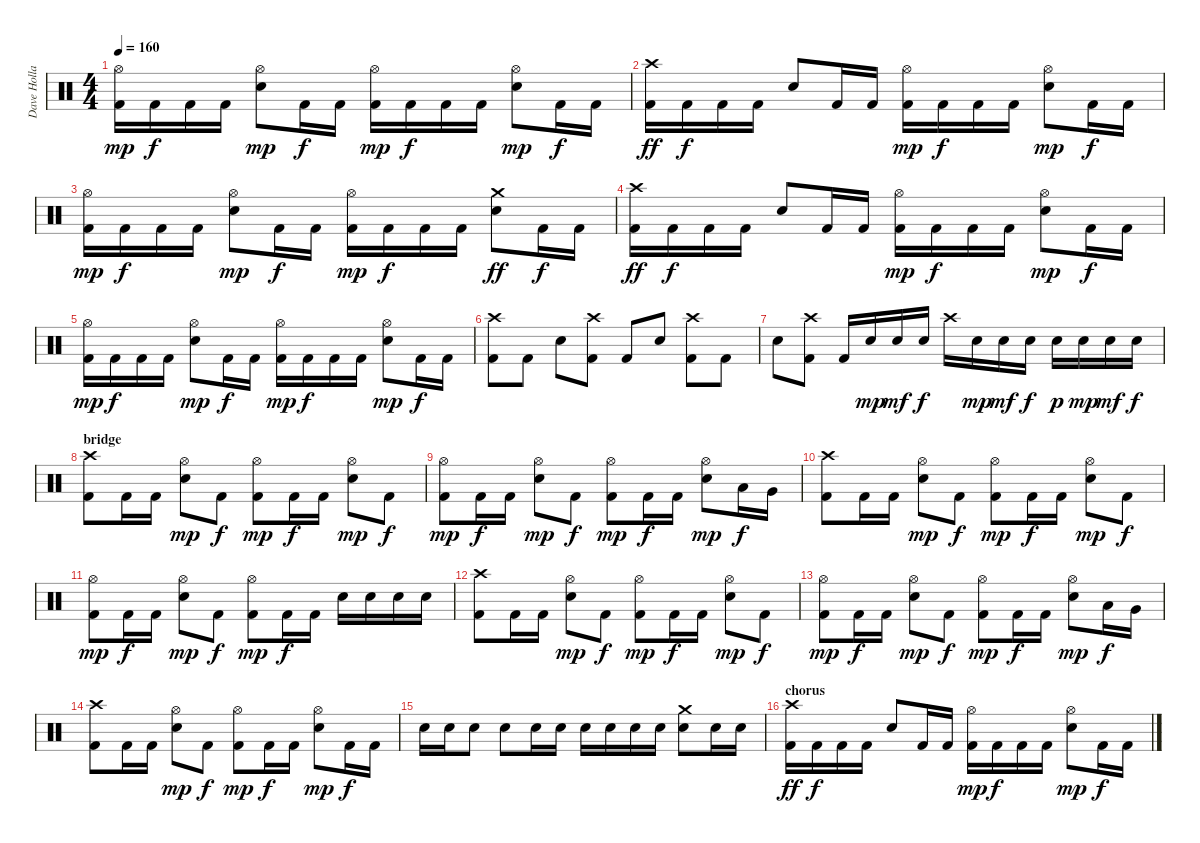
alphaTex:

\track ("Dave Holland" "Dave Holla") {instrument percussion}
\staff {score}
\articulation defaults
\ts (4 4)
\tempo 160
\clef neutral
\ks c
("Kick (hit) 2" "Hi-Hat (open)").16{dy mp} "Kick (hit) 2".16{dy f} "Kick (hit) 2".16 "Kick (hit) 2".16 ("Hi-Hat (open)" "Snare (hit) 2").8{dy mp} "Kick (hit) 2".16{dy f} "Kick (hit) 2".16 ("Kick (hit) 2" "Hi-Hat (open)").16{dy mp} "Kick (hit) 2".16{dy f} "Kick (hit) 2".16 "Kick (hit) 2".16 ("Hi-Hat (open)" "Snare (hit) 2").8{dy mp} "Kick (hit) 2".16{dy f} "Kick (hit) 2".16 |
("Kick (hit) 2" "Crash high (hit)").16{dy ff} "Kick (hit) 2".16{dy f} "Kick (hit) 2".16 "Kick (hit) 2".16 "Snare (hit) 2".8 "Kick (hit) 2".16 "Kick (hit) 2".16 ("Kick (hit) 2" "Hi-Hat (open)").16{dy mp} "Kick (hit) 2".16{dy f} "Kick (hit) 2".16 "Kick (hit) 2".16 ("Hi-Hat (open)" "Snare (hit) 2").8{dy mp} "Kick (hit) 2".16{dy f} "Kick (hit) 2".16 |
("Kick (hit) 2" "Hi-Hat (open)").16{dy mp} "Kick (hit) 2".16{dy f} "Kick (hit) 2".16 "Kick (hit) 2".16 ("Hi-Hat (open)" "Snare (hit) 2").8{dy mp} "Kick (hit) 2".16{dy f} "Kick (hit) 2".16 ("Kick (hit) 2" "Hi-Hat (open)").16{dy mp} "Kick (hit) 2".16{dy f} "Kick (hit) 2".16 "Kick (hit) 2".16 ("Crash medium (hit)" "Snare (hit) 2").8{dy ff} "Kick (hit) 2".16{dy f} "Kick (hit) 2".16 |
("Kick (hit) 2" "Crash high (hit)").16{dy ff} "Kick (hit) 2".16{dy f} "Kick (hit) 2".16 "Kick (hit) 2".16 "Snare (hit) 2".8 "Kick (hit) 2".16 "Kick (hit) 2".16 ("Kick (hit) 2" "Hi-Hat (open)").16{dy mp} "Kick (hit) 2".16{dy f} "Kick (hit) 2".16 "Kick (hit) 2".16 ("Hi-Hat (open)" "Snare (hit) 2").8{dy mp} "Kick (hit) 2".16{dy f} "Kick (hit) 2".16 |
("Kick (hit) 2" "Hi-Hat (open)").16{dy mp} "Kick (hit) 2".16{dy f} "Kick (hit) 2".16 "Kick (hit) 2".16 ("Hi-Hat (open)" "Snare (hit) 2").8{dy mp} "Kick (hit) 2".16{dy f} "Kick (hit) 2".16 ("Kick (hit) 2" "Hi-Hat (open)").16{dy mp} "Kick (hit) 2".16{dy f} "Kick (hit) 2".16 "Kick (hit) 2".16 ("Hi-Hat (open)" "Snare (hit) 2").8{dy mp} "Kick (hit) 2".16{dy f} "Kick (hit) 2".16 |
("Kick (hit) 2" "Crash high (hit)").8 "Kick (hit) 2".8 "Snare (hit) 2".8 ("Kick (hit) 2" "Crash high (hit)").8 "Kick (hit) 2".8 "Snare (hit) 2".8 ("Kick (hit) 2" "Crash high (hit)").8 "Kick (hit) 2".8 |
"Snare (hit) 2".8 ("Kick (hit) 2" "Crash high (hit)").8 "Kick (hit) 2".16 "Snare (hit) 2".16{dy mp} "Snare (hit) 2".16{dy mf} "Snare (hit) 2".16{dy f} "Crash high (hit)".16 "Snare (hit) 2".16{dy mp} "Snare (hit) 2".16{dy mf} "Snare (hit) 2".16{dy f} "Snare (hit) 2".16{dy p} "Snare (hit) 2".16{dy mp} "Snare (hit) 2".16{dy mf} "Snare (hit) 2".16{dy f} |
\section ("" "bridge")
("Kick (hit) 2" "Crash high (hit)").8 "Kick (hit) 2".16 "Kick (hit) 2".16 ("Hi-Hat (open)" "Snare (hit) 2").8{dy mp} "Kick (hit) 2".8{dy f} ("Kick (hit) 2" "Hi-Hat (open)").8{dy mp} "Kick (hit) 2".16{dy f} "Kick (hit) 2".16 ("Hi-Hat (open)" "Snare (hit) 2").8{dy mp} "Kick (hit) 2".8{dy f} |
("Kick (hit) 2" "Hi-Hat (open)").8{dy mp} "Kick (hit) 2".16{dy f} "Kick (hit) 2".16 ("Hi-Hat (open)" "Snare (hit) 2").8{dy mp} "Kick (hit) 2".8{dy f} ("Kick (hit) 2" "Hi-Hat (open)").8{dy mp} "Kick (hit) 2".16{dy f} "Kick (hit) 2".16 ("Hi-Hat (open)" "Snare (hit) 2").8{dy mp} "Low Tom (hit)".16{dy f} "Very Low Tom (hit)".16 |
("Kick (hit) 2" "Crash high (hit)").8 "Kick (hit) 2".16 "Kick (hit) 2".16 ("Hi-Hat (open)" "Snare (hit) 2").8{dy mp} "Kick (hit) 2".8{dy f} ("Kick (hit) 2" "Hi-Hat (open)").8{dy mp} "Kick (hit) 2".16{dy f} "Kick (hit) 2".16 ("Hi-Hat (open)" "Snare (hit) 2").8{dy mp} "Kick (hit) 2".8{dy f} |
("Kick (hit) 2" "Hi-Hat (open)").8{dy mp} "Kick (hit) 2".16{dy f} "Kick (hit) 2".16 ("Hi-Hat (open)" "Snare (hit) 2").8{dy mp} "Kick (hit) 2".8{dy f} ("Kick (hit) 2" "Hi-Hat (open)").8{dy mp} "Kick (hit) 2".16{dy f} "Kick (hit) 2".16 "Snare (hit) 2".16 "Snare (hit) 2".16 "Snare (hit) 2".16 "Snare (hit) 2".16 |
("Kick (hit) 2" "Crash high (hit)").8 "Kick (hit) 2".16 "Kick (hit) 2".16 ("Hi-Hat (open)" "Snare (hit) 2").8{dy mp} "Kick (hit) 2".8{dy f} ("Kick (hit) 2" "Hi-Hat (open)").8{dy mp} "Kick (hit) 2".16{dy f} "Kick (hit) 2".16 ("Hi-Hat (open)" "Snare (hit) 2").8{dy mp} "Kick (hit) 2".8{dy f} |
("Kick (hit) 2" "Hi-Hat (open)").8{dy mp} "Kick (hit) 2".16{dy f} "Kick (hit) 2".16 ("Hi-Hat (open)" "Snare (hit) 2").8{dy mp} "Kick (hit) 2".8{dy f} ("Kick (hit) 2" "Hi-Hat (open)").8{dy mp} "Kick (hit) 2".16{dy f} "Kick (hit) 2".16 ("Hi-Hat (open)" "Snare (hit) 2").8{dy mp} "Low Tom (hit)".16{dy f} "Very Low Tom (hit)".16 |
("Kick (hit) 2" "Crash high (hit)").8 "Kick (hit) 2".16 "Kick (hit) 2".16 ("Hi-Hat (open)" "Snare (hit) 2").8{dy mp} "Kick (hit) 2".8{dy f} ("Kick (hit) 2" "Hi-Hat (open)").8{dy mp} "Kick (hit) 2".16{dy f} "Kick (hit) 2".16 ("Hi-Hat (open)" "Snare (hit) 2").8{dy mp} "Kick (hit) 2".16{dy f} "Kick (hit) 2".16 |
"Snare (hit) 2".16 "Snare (hit) 2".16 "Snare (hit) 2".8 "Snare (hit) 2".8 "Snare (hit) 2".16 "Snare (hit) 2".16 "Snare (hit) 2".16 "Snare (hit) 2".16 "Snare (hit) 2".16 "Snare (hit) 2".16 ("Crash medium (hit)" "Snare (hit) 2").8 "Snare (hit) 2".16 "Snare (hit) 2".16 |
\section ("" "chorus")
("Kick (hit) 2" "Crash high (hit)").16{dy ff} "Kick (hit) 2".16{dy f} "Kick (hit) 2".16 "Kick (hit) 2".16 "Snare (hit) 2".8 "Kick (hit) 2".16 "Kick (hit) 2".16 ("Kick (hit) 2" "Hi-Hat (open)").16{dy mp} "Kick (hit) 2".16{dy f} "Kick (hit) 2".16 "Kick (hit) 2".16 ("Hi-Hat (open)" "Snare (hit) 2").8{dy mp} "Kick (hit) 2".16{dy f} "Kick (hit) 2".16
